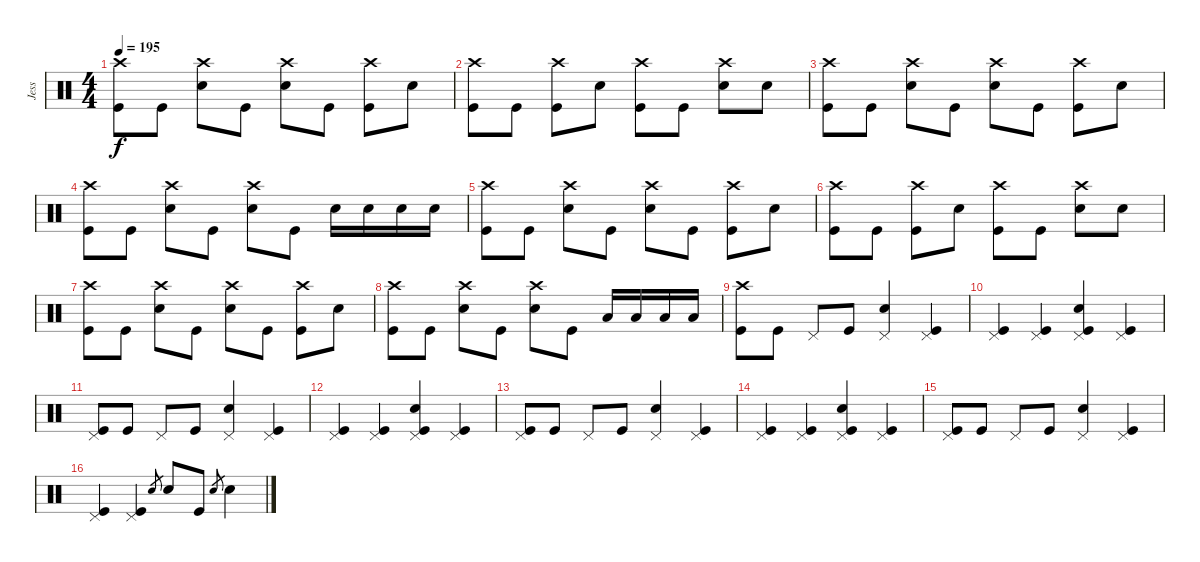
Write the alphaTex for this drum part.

\track ("Jess" "Jess") {instrument percussion}
\staff {score}
\articulation defaults
\ts (4 4)
\tempo 195
\clef neutral
\ks c
("Crash high (hit)" "Kick (hit)").8{dy f} "Kick (hit)".8 ("Crash high (hit)" "Electric Snare (hit)").8 "Kick (hit)".8 ("Crash high (hit)" "Electric Snare (hit)").8 "Kick (hit)".8 ("Crash high (hit)" "Kick (hit)").8 "Electric Snare (hit)".8 |
("Crash high (hit)" "Kick (hit)").8 "Kick (hit)".8 ("Crash high (hit)" "Kick (hit)").8 "Electric Snare (hit)".8 ("Crash high (hit)" "Kick (hit)").8 "Kick (hit)".8 ("Crash high (hit)" "Electric Snare (hit)").8 "Electric Snare (hit)".8 |
("Crash high (hit)" "Kick (hit)").8 "Kick (hit)".8 ("Crash high (hit)" "Electric Snare (hit)").8 "Kick (hit)".8 ("Crash high (hit)" "Electric Snare (hit)").8 "Kick (hit)".8 ("Crash high (hit)" "Kick (hit)").8 "Electric Snare (hit)".8 |
("Crash high (hit)" "Kick (hit)").8 "Kick (hit)".8 ("Crash high (hit)" "Electric Snare (hit)").8 "Kick (hit)".8 ("Crash high (hit)" "Electric Snare (hit)").8 "Kick (hit)".8 "Electric Snare (hit)".16 "Electric Snare (hit)".16 "Electric Snare (hit)".16 "Electric Snare (hit)".16 |
("Crash high (hit)" "Kick (hit)").8 "Kick (hit)".8 ("Crash high (hit)" "Electric Snare (hit)").8 "Kick (hit)".8 ("Crash high (hit)" "Electric Snare (hit)").8 "Kick (hit)".8 ("Crash high (hit)" "Kick (hit)").8 "Electric Snare (hit)".8 |
("Crash high (hit)" "Kick (hit)").8 "Kick (hit)".8 ("Crash high (hit)" "Kick (hit)").8 "Electric Snare (hit)".8 ("Crash high (hit)" "Kick (hit)").8 "Kick (hit)".8 ("Crash high (hit)" "Electric Snare (hit)").8 "Electric Snare (hit)".8 |
("Crash high (hit)" "Kick (hit)").8 "Kick (hit)".8 ("Crash high (hit)" "Electric Snare (hit)").8 "Kick (hit)".8 ("Crash high (hit)" "Electric Snare (hit)").8 "Kick (hit)".8 ("Crash high (hit)" "Kick (hit)").8 "Electric Snare (hit)".8 |
("Crash high (hit)" "Kick (hit)").8 "Kick (hit)".8 ("Crash high (hit)" "Electric Snare (hit)").8 "Kick (hit)".8 ("Crash high (hit)" "Electric Snare (hit)").8 "Kick (hit)".8 "Low Tom (hit)".16 "Low Tom (hit)".16 "Low Floor Tom (hit)".16 "Low Floor Tom (hit)".16 |
("Crash high (hit)" "Kick (hit)").8 "Kick (hit)".8 "Pedal Hi-Hat (hit)".8 "Kick (hit)".8 ("Pedal Hi-Hat (hit)" "Electric Snare (hit)").4 ("Pedal Hi-Hat (hit)" "Kick (hit)").4 |
("Pedal Hi-Hat (hit)" "Kick (hit)").4 ("Pedal Hi-Hat (hit)" "Kick (hit)").4 ("Pedal Hi-Hat (hit)" "Electric Snare (hit)" "Kick (hit)").4 ("Pedal Hi-Hat (hit)" "Kick (hit)").4 |
("Pedal Hi-Hat (hit)" "Kick (hit)").8 "Kick (hit)".8 "Pedal Hi-Hat (hit)".8 "Kick (hit)".8 ("Pedal Hi-Hat (hit)" "Electric Snare (hit)").4 ("Pedal Hi-Hat (hit)" "Kick (hit)").4 |
("Pedal Hi-Hat (hit)" "Kick (hit)").4 ("Pedal Hi-Hat (hit)" "Kick (hit)").4 ("Pedal Hi-Hat (hit)" "Electric Snare (hit)" "Kick (hit)").4 ("Pedal Hi-Hat (hit)" "Kick (hit)").4 |
("Pedal Hi-Hat (hit)" "Kick (hit)").8 "Kick (hit)".8 "Pedal Hi-Hat (hit)".8 "Kick (hit)".8 ("Pedal Hi-Hat (hit)" "Electric Snare (hit)").4 ("Pedal Hi-Hat (hit)" "Kick (hit)").4 |
("Pedal Hi-Hat (hit)" "Kick (hit)").4 ("Pedal Hi-Hat (hit)" "Kick (hit)").4 ("Pedal Hi-Hat (hit)" "Electric Snare (hit)" "Kick (hit)").4 ("Pedal Hi-Hat (hit)" "Kick (hit)").4 |
("Pedal Hi-Hat (hit)" "Kick (hit)").8 "Kick (hit)".8 "Pedal Hi-Hat (hit)".8 "Kick (hit)".8 ("Pedal Hi-Hat (hit)" "Electric Snare (hit)").4 ("Pedal Hi-Hat (hit)" "Kick (hit)").4 |
("Pedal Hi-Hat (hit)" "Kick (hit)").4 ("Pedal Hi-Hat (hit)" "Kick (hit)").4 "Electric Snare (hit)".8{gr} "Electric Snare (hit)".8 "Kick (hit)".8 "Electric Snare (hit)".8{gr} "Electric Snare (hit)".4
